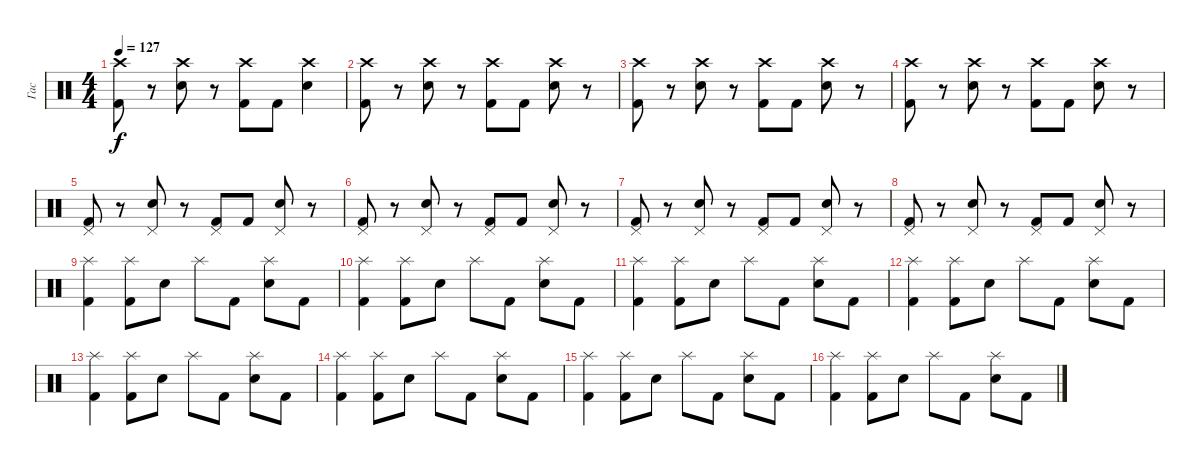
\track ("Гас" "Гас") {instrument percussion}
\staff {score}
\articulation defaults
\ts (4 4)
\tempo 127
\clef neutral
\ks c
("Crash high (hit)" "Kick (hit) 2").8{dy f} r.8 ("Crash high (hit)" "Electric Snare (hit)").8 r.8 ("Crash high (hit)" "Kick (hit) 2").8 "Kick (hit) 2".8 ("Crash high (hit)" "Electric Snare (hit)").4 |
("Crash high (hit)" "Kick (hit) 2").8 r.8 ("Crash high (hit)" "Electric Snare (hit)").8 r.8 ("Crash high (hit)" "Kick (hit) 2").8 "Kick (hit) 2".8 ("Crash high (hit)" "Electric Snare (hit)").8 r.8 |
("Crash high (hit)" "Kick (hit) 2").8 r.8 ("Crash high (hit)" "Electric Snare (hit)").8 r.8 ("Crash high (hit)" "Kick (hit) 2").8 "Kick (hit) 2".8 ("Crash high (hit)" "Electric Snare (hit)").8 r.8 |
("Crash high (hit)" "Kick (hit) 2").8 r.8 ("Crash high (hit)" "Electric Snare (hit)").8 r.8 ("Crash high (hit)" "Kick (hit) 2").8 "Kick (hit) 2".8 ("Crash high (hit)" "Electric Snare (hit)").8 r.8 |
("Pedal Hi-Hat (hit)" "Kick (hit) 2").8 r.8 ("Pedal Hi-Hat (hit)" "Electric Snare (hit)").8 r.8 ("Pedal Hi-Hat (hit)" "Kick (hit) 2").8 "Kick (hit) 2".8 ("Pedal Hi-Hat (hit)" "Electric Snare (hit)").8 r.8 |
("Pedal Hi-Hat (hit)" "Kick (hit) 2").8 r.8 ("Pedal Hi-Hat (hit)" "Electric Snare (hit)").8 r.8 ("Pedal Hi-Hat (hit)" "Kick (hit) 2").8 "Kick (hit) 2".8 ("Pedal Hi-Hat (hit)" "Electric Snare (hit)").8 r.8 |
("Pedal Hi-Hat (hit)" "Kick (hit) 2").8 r.8 ("Pedal Hi-Hat (hit)" "Electric Snare (hit)").8 r.8 ("Pedal Hi-Hat (hit)" "Kick (hit) 2").8 "Kick (hit) 2".8 ("Pedal Hi-Hat (hit)" "Electric Snare (hit)").8 r.8 |
("Pedal Hi-Hat (hit)" "Kick (hit) 2").8 r.8 ("Pedal Hi-Hat (hit)" "Electric Snare (hit)").8 r.8 ("Pedal Hi-Hat (hit)" "Kick (hit) 2").8 "Kick (hit) 2".8 ("Pedal Hi-Hat (hit)" "Electric Snare (hit)").8 r.8 |
("Splash (hit)" "Kick (hit) 2").4 ("Splash (hit)" "Kick (hit) 2").8 "Electric Snare (hit)".8 "Splash (hit)".8 "Kick (hit) 2".8 ("Splash (hit)" "Electric Snare (hit)").8 "Kick (hit) 2".8 |
("Splash (hit)" "Kick (hit) 2").4 ("Splash (hit)" "Kick (hit) 2").8 "Electric Snare (hit)".8 "Splash (hit)".8 "Kick (hit) 2".8 ("Splash (hit)" "Electric Snare (hit)").8 "Kick (hit) 2".8 |
("Splash (hit)" "Kick (hit) 2").4 ("Splash (hit)" "Kick (hit) 2").8 "Electric Snare (hit)".8 "Splash (hit)".8 "Kick (hit) 2".8 ("Splash (hit)" "Electric Snare (hit)").8 "Kick (hit) 2".8 |
("Splash (hit)" "Kick (hit) 2").4 ("Splash (hit)" "Kick (hit) 2").8 "Electric Snare (hit)".8 "Splash (hit)".8 "Kick (hit) 2".8 ("Splash (hit)" "Electric Snare (hit)").8 "Kick (hit) 2".8 |
("Splash (hit)" "Kick (hit) 2").4 ("Splash (hit)" "Kick (hit) 2").8 "Electric Snare (hit)".8 "Splash (hit)".8 "Kick (hit) 2".8 ("Splash (hit)" "Electric Snare (hit)").8 "Kick (hit) 2".8 |
("Splash (hit)" "Kick (hit) 2").4 ("Splash (hit)" "Kick (hit) 2").8 "Electric Snare (hit)".8 "Splash (hit)".8 "Kick (hit) 2".8 ("Splash (hit)" "Electric Snare (hit)").8 "Kick (hit) 2".8 |
("Splash (hit)" "Kick (hit) 2").4 ("Splash (hit)" "Kick (hit) 2").8 "Electric Snare (hit)".8 "Splash (hit)".8 "Kick (hit) 2".8 ("Splash (hit)" "Electric Snare (hit)").8 "Kick (hit) 2".8 |
("Splash (hit)" "Kick (hit) 2").4 ("Splash (hit)" "Kick (hit) 2").8 "Electric Snare (hit)".8 "Splash (hit)".8 "Kick (hit) 2".8 ("Splash (hit)" "Electric Snare (hit)").8 "Kick (hit) 2".8
